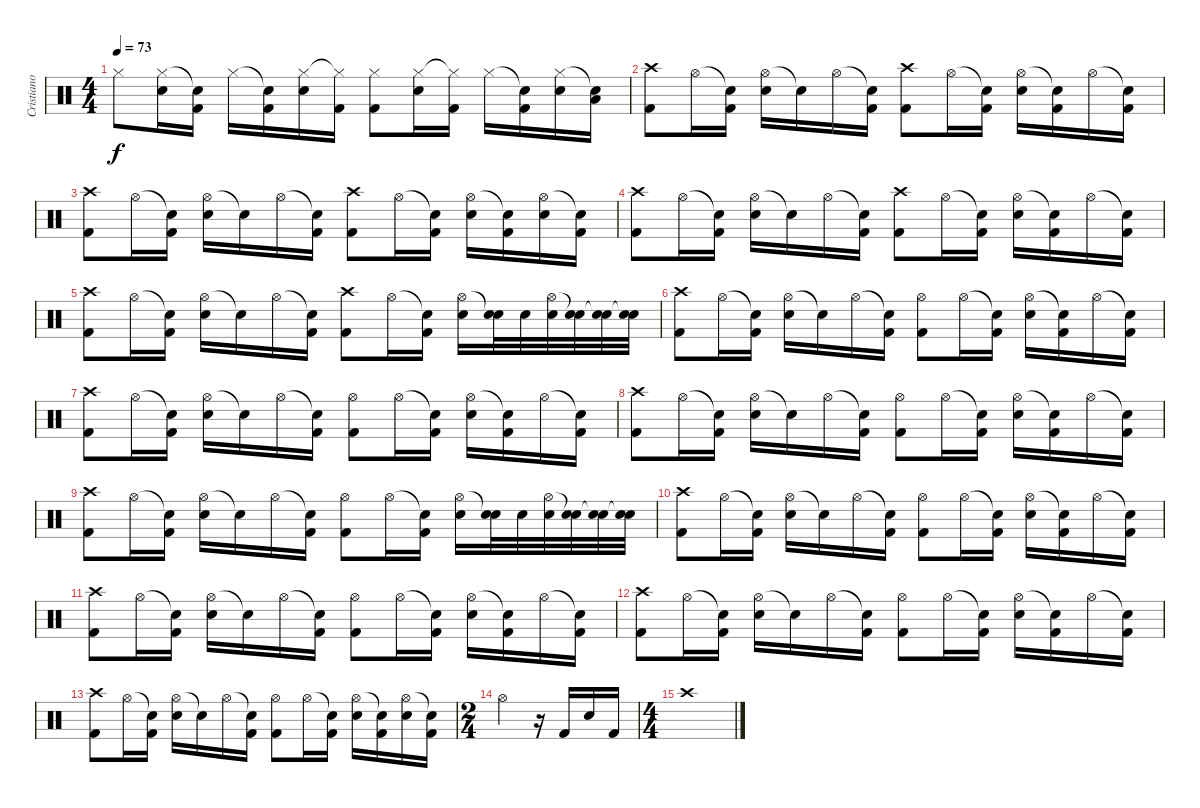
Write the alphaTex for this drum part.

\track ("Cristiano Mozzati" "Cristiano ") {instrument percussion}
\staff {score}
\articulation defaults
\ts (4 4)
\tempo 73
\clef neutral
\ks c "Hi-Hat (closed)".8{dy f}
("Hi-Hat (closed)" "Electric Snare (hit)").16 ("Snare (hit)"{t} "Kick (hit) 2").16 "Hi-Hat (closed)".16 ("Snare (hit)"{t} "Kick (hit) 2").16 ("Hi-Hat (closed)" "Electric Snare (hit)").16 ("Hi-Hat (closed)"{t} "Kick (hit) 2").16 ("Hi-Hat (closed)" "Kick (hit) 2").8 ("Hi-Hat (closed)" "Electric Snare (hit)").16 ("Hi-Hat (closed)"{t} "Kick (hit) 2").16 "Hi-Hat (closed)".16 ("Snare (hit)"{t} "Kick (hit) 2").16 ("Hi-Hat (closed)" "Electric Snare (hit)").16 ("Snare (hit)"{t} "Low Tom (hit)").16 |
("Crash high (hit)" "Kick (hit) 2").8 "Hi-Hat (open)".16 ("Snare (hit)"{t} "Kick (hit) 2").16 ("Hi-Hat (open)" "Electric Snare (hit)").16 "Snare (hit)"{t}.16 "Hi-Hat (open)".16 ("Snare (hit)"{t} "Kick (hit) 2").16 ("Crash high (hit)" "Kick (hit) 2").8 "Hi-Hat (open)".16 ("Snare (hit)"{t} "Kick (hit) 2").16 ("Hi-Hat (open)" "Electric Snare (hit)").16 ("Snare (hit)"{t} "Kick (hit) 2").16 "Hi-Hat (open)".16 ("Snare (hit)"{t} "Kick (hit) 2").16 |
("Crash high (hit)" "Kick (hit) 2").8 "Hi-Hat (open)".16 ("Snare (hit)"{t} "Kick (hit) 2").16 ("Hi-Hat (open)" "Electric Snare (hit)").16 "Snare (hit)"{t}.16 "Hi-Hat (open)".16 ("Snare (hit)"{t} "Kick (hit) 2").16 ("Crash high (hit)" "Kick (hit) 2").8 "Hi-Hat (open)".16 ("Snare (hit)"{t} "Kick (hit) 2").16 ("Hi-Hat (open)" "Electric Snare (hit)").16 ("Snare (hit)"{t} "Kick (hit) 2").16 ("Hi-Hat (open)" "Electric Snare (hit)").16 ("Snare (hit)"{t} "Kick (hit) 2").16 |
("Crash high (hit)" "Kick (hit) 2").8 "Hi-Hat (open)".16 ("Snare (hit)"{t} "Kick (hit) 2").16 ("Hi-Hat (open)" "Electric Snare (hit)").16 "Snare (hit)"{t}.16 "Hi-Hat (open)".16 ("Snare (hit)"{t} "Kick (hit) 2").16 ("Crash high (hit)" "Kick (hit) 2").8 "Hi-Hat (open)".16 ("Snare (hit)"{t} "Kick (hit) 2").16 ("Hi-Hat (open)" "Electric Snare (hit)").16 ("Snare (hit)"{t} "Kick (hit) 2").16 "Hi-Hat (open)".16 ("Snare (hit)"{t} "Kick (hit) 2").16 |
("Crash high (hit)" "Kick (hit) 2").8 "Hi-Hat (open)".16 ("Snare (hit)"{t} "Kick (hit) 2").16 ("Hi-Hat (open)" "Electric Snare (hit)").16 "Snare (hit)"{t}.16 "Hi-Hat (open)".16 ("Snare (hit)"{t} "Kick (hit) 2").16 ("Crash high (hit)" "Kick (hit) 2").8 "Hi-Hat (open)".16 ("Snare (hit)"{t} "Kick (hit) 2").16 ("Hi-Hat (open)" "Electric Snare (hit)").16 ("Snare (hit)"{t} "Electric Snare (hit)").32 "Electric Snare (hit)".32 ("Hi-Hat (open)" "Electric Snare (hit)").32 ("Snare (hit)"{t} "Electric Snare (hit)").32 ("Snare (hit)"{t} "Electric Snare (hit)").32 ("Snare (hit)"{t} "Electric Snare (hit)").32 |
("Crash high (hit)" "Kick (hit) 2").8 "Hi-Hat (open)".16 ("Snare (hit)"{t} "Kick (hit) 2").16 ("Hi-Hat (open)" "Electric Snare (hit)").16 "Snare (hit)"{t}.16 "Hi-Hat (open)".16 ("Snare (hit)"{t} "Kick (hit) 2").16 ("Hi-Hat (open)" "Kick (hit) 2").8 "Hi-Hat (open)".16 ("Snare (hit)"{t} "Kick (hit) 2").16 ("Hi-Hat (open)" "Electric Snare (hit)").16 ("Snare (hit)"{t} "Kick (hit) 2").16 "Hi-Hat (open)".16 ("Snare (hit)"{t} "Kick (hit) 2").16 |
("Crash high (hit)" "Kick (hit) 2").8 "Hi-Hat (open)".16 ("Snare (hit)"{t} "Kick (hit) 2").16 ("Hi-Hat (open)" "Electric Snare (hit)").16 "Snare (hit)"{t}.16 "Hi-Hat (open)".16 ("Snare (hit)"{t} "Kick (hit) 2").16 ("Hi-Hat (open)" "Kick (hit) 2").8 "Hi-Hat (open)".16 ("Snare (hit)"{t} "Kick (hit) 2").16 ("Hi-Hat (open)" "Electric Snare (hit)").16 ("Snare (hit)"{t} "Kick (hit) 2").16 "Hi-Hat (open)".16 ("Snare (hit)"{t} "Kick (hit) 2").16 |
("Crash high (hit)" "Kick (hit) 2").8 "Hi-Hat (open)".16 ("Snare (hit)"{t} "Kick (hit) 2").16 ("Hi-Hat (open)" "Electric Snare (hit)").16 "Snare (hit)"{t}.16 "Hi-Hat (open)".16 ("Snare (hit)"{t} "Kick (hit) 2").16 ("Hi-Hat (open)" "Kick (hit) 2").8 "Hi-Hat (open)".16 ("Snare (hit)"{t} "Kick (hit) 2").16 ("Hi-Hat (open)" "Electric Snare (hit)").16 ("Snare (hit)"{t} "Kick (hit) 2").16 "Hi-Hat (open)".16 ("Snare (hit)"{t} "Kick (hit) 2").16 |
("Crash high (hit)" "Kick (hit) 2").8 "Hi-Hat (open)".16 ("Snare (hit)"{t} "Kick (hit) 2").16 ("Hi-Hat (open)" "Electric Snare (hit)").16 "Snare (hit)"{t}.16 "Hi-Hat (open)".16 ("Snare (hit)"{t} "Kick (hit) 2").16 ("Hi-Hat (open)" "Kick (hit) 2").8 "Hi-Hat (open)".16 ("Snare (hit)"{t} "Kick (hit) 2").16 ("Hi-Hat (open)" "Electric Snare (hit)").16 ("Snare (hit)"{t} "Electric Snare (hit)").32 "Electric Snare (hit)".32 ("Hi-Hat (open)" "Electric Snare (hit)").32 ("Snare (hit)"{t} "Electric Snare (hit)").32 ("Snare (hit)"{t} "Electric Snare (hit)").32 ("Snare (hit)"{t} "Electric Snare (hit)").32 |
("Crash high (hit)" "Kick (hit) 2").8 "Hi-Hat (open)".16 ("Snare (hit)"{t} "Kick (hit) 2").16 ("Hi-Hat (open)" "Electric Snare (hit)").16 "Snare (hit)"{t}.16 "Hi-Hat (open)".16 ("Snare (hit)"{t} "Kick (hit) 2").16 ("Hi-Hat (open)" "Kick (hit) 2").8 "Hi-Hat (open)".16 ("Snare (hit)"{t} "Kick (hit) 2").16 ("Hi-Hat (open)" "Electric Snare (hit)").16 ("Snare (hit)"{t} "Kick (hit) 2").16 "Hi-Hat (open)".16 ("Snare (hit)"{t} "Kick (hit) 2").16 |
("Crash high (hit)" "Kick (hit) 2").8 "Hi-Hat (open)".16 ("Snare (hit)"{t} "Kick (hit) 2").16 ("Hi-Hat (open)" "Electric Snare (hit)").16 "Snare (hit)"{t}.16 "Hi-Hat (open)".16 ("Snare (hit)"{t} "Kick (hit) 2").16 ("Hi-Hat (open)" "Kick (hit) 2").8 "Hi-Hat (open)".16 ("Snare (hit)"{t} "Kick (hit) 2").16 ("Hi-Hat (open)" "Electric Snare (hit)").16 ("Snare (hit)"{t} "Kick (hit) 2").16 "Hi-Hat (open)".16 ("Snare (hit)"{t} "Kick (hit) 2").16 |
("Crash high (hit)" "Kick (hit) 2").8 "Hi-Hat (open)".16 ("Snare (hit)"{t} "Kick (hit) 2").16 ("Hi-Hat (open)" "Electric Snare (hit)").16 "Snare (hit)"{t}.16 "Hi-Hat (open)".16 ("Snare (hit)"{t} "Kick (hit) 2").16 ("Hi-Hat (open)" "Kick (hit) 2").8 "Hi-Hat (open)".16 ("Snare (hit)"{t} "Kick (hit) 2").16 ("Hi-Hat (open)" "Electric Snare (hit)").16 ("Snare (hit)"{t} "Kick (hit) 2").16 "Hi-Hat (open)".16 ("Snare (hit)"{t} "Kick (hit) 2").16 |
("Crash high (hit)" "Kick (hit) 2").8 "Hi-Hat (open)".16 ("Snare (hit)"{t} "Kick (hit) 2").16 ("Hi-Hat (open)" "Electric Snare (hit)").16 "Snare (hit)"{t}.16 "Hi-Hat (open)".16 ("Snare (hit)"{t} "Kick (hit) 2").16 ("Hi-Hat (open)" "Kick (hit) 2").8 "Hi-Hat (open)".16 ("Snare (hit)"{t} "Kick (hit) 2").16 ("Hi-Hat (open)" "Electric Snare (hit)").16 ("Snare (hit)"{t} "Kick (hit) 2").16 ("Hi-Hat (open)" "Electric Snare (hit)").16 ("Snare (hit)"{t} "Kick (hit) 2").16 |
\ts (2 4)
"Hi-Hat (open)".4 r.16 "Kick (hit) 2".16 "Electric Snare (hit)".16 "Kick (hit) 2".16 |
\ts (4 4)
"Crash high (hit)".1
